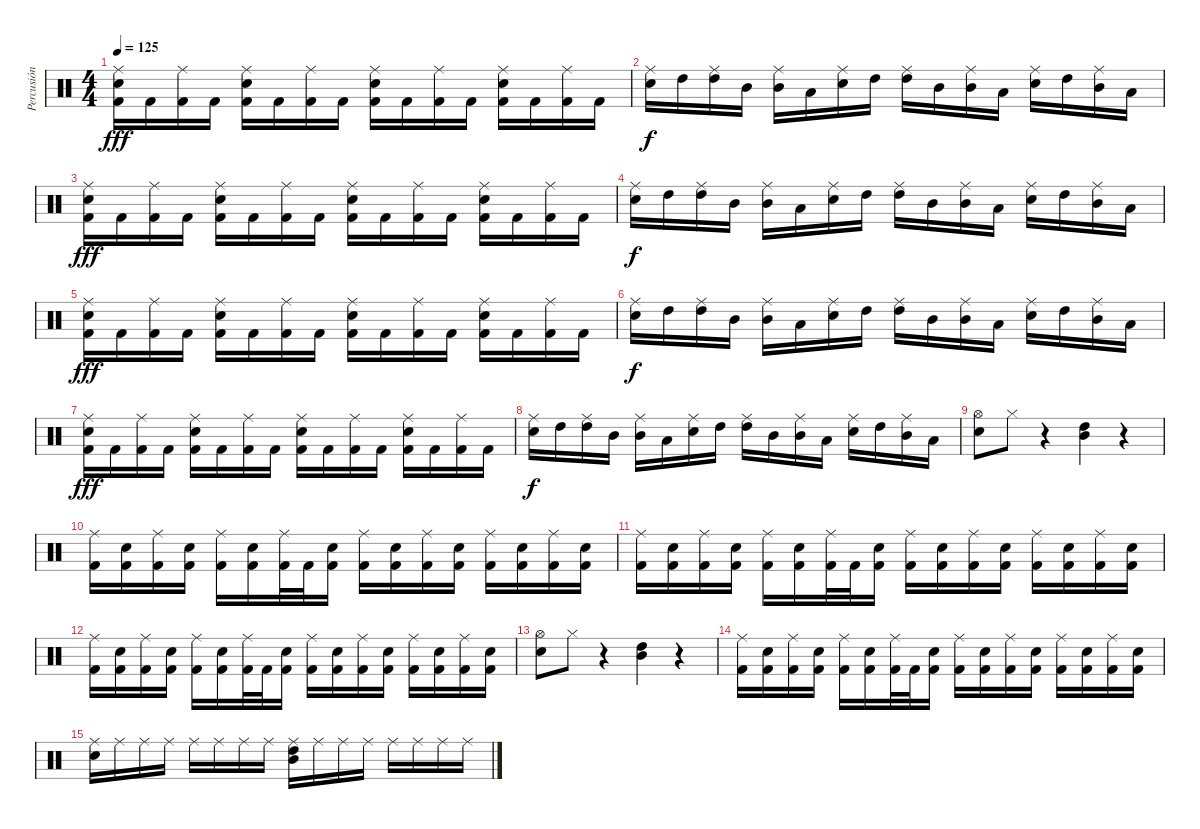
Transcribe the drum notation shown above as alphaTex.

\track ("Percusión" "Percusión") {instrument percussion}
\staff {score}
\articulation defaults
\ts (4 4)
\tempo 125
\clef neutral
\ks c
("Ride (middle)" "Electric Snare (hit)" "Kick (hit) 2").16{dy fff} "Kick (hit) 2".16 ("Ride (middle)" "Kick (hit) 2").16 "Kick (hit) 2".16 ("Ride (middle)" "Electric Snare (hit)" "Kick (hit) 2").16 "Kick (hit) 2".16 ("Ride (middle)" "Kick (hit) 2").16 "Kick (hit) 2".16 ("Ride (middle)" "Electric Snare (hit)" "Kick (hit) 2").16 "Kick (hit) 2".16 ("Ride (middle)" "Kick (hit) 2").16 "Kick (hit) 2".16 ("Ride (middle)" "Electric Snare (hit)" "Kick (hit) 2").16 "Kick (hit) 2".16 ("Ride (middle)" "Kick (hit) 2").16 "Kick (hit) 2".16 |
("Ride (middle)" "Electric Snare (hit)").16{dy f} "High Tom (hit)".16 ("Ride (middle)" "High Tom (hit)").16 "Mid Tom (hit)".16 ("Ride (middle)" "Mid Tom (hit)").16 "Low Tom (hit)".16 ("Ride (middle)" "Electric Snare (hit)").16 "High Tom (hit)".16 ("Ride (middle)" "High Tom (hit)").16 "Mid Tom (hit)".16 ("Ride (middle)" "Mid Tom (hit)").16 "Low Tom (hit)".16 ("Ride (middle)" "Electric Snare (hit)").16 "High Tom (hit)".16 ("Ride (middle)" "Mid Tom (hit)").16 "Low Tom (hit)".16 |
("Ride (middle)" "Electric Snare (hit)" "Kick (hit) 2").16{dy fff} "Kick (hit) 2".16 ("Ride (middle)" "Kick (hit) 2").16 "Kick (hit) 2".16 ("Ride (middle)" "Electric Snare (hit)" "Kick (hit) 2").16 "Kick (hit) 2".16 ("Ride (middle)" "Kick (hit) 2").16 "Kick (hit) 2".16 ("Ride (middle)" "Electric Snare (hit)" "Kick (hit) 2").16 "Kick (hit) 2".16 ("Ride (middle)" "Kick (hit) 2").16 "Kick (hit) 2".16 ("Ride (middle)" "Electric Snare (hit)" "Kick (hit) 2").16 "Kick (hit) 2".16 ("Ride (middle)" "Kick (hit) 2").16 "Kick (hit) 2".16 |
("Ride (middle)" "Electric Snare (hit)").16{dy f} "High Tom (hit)".16 ("Ride (middle)" "High Tom (hit)").16 "Mid Tom (hit)".16 ("Ride (middle)" "Mid Tom (hit)").16 "Low Tom (hit)".16 ("Ride (middle)" "Electric Snare (hit)").16 "High Tom (hit)".16 ("Ride (middle)" "High Tom (hit)").16 "Mid Tom (hit)".16 ("Ride (middle)" "Mid Tom (hit)").16 "Low Tom (hit)".16 ("Ride (middle)" "Electric Snare (hit)").16 "High Tom (hit)".16 ("Ride (middle)" "Mid Tom (hit)").16 "Low Tom (hit)".16 |
("Ride (middle)" "Electric Snare (hit)" "Kick (hit) 2").16{dy fff} "Kick (hit) 2".16 ("Ride (middle)" "Kick (hit) 2").16 "Kick (hit) 2".16 ("Ride (middle)" "Electric Snare (hit)" "Kick (hit) 2").16 "Kick (hit) 2".16 ("Ride (middle)" "Kick (hit) 2").16 "Kick (hit) 2".16 ("Ride (middle)" "Electric Snare (hit)" "Kick (hit) 2").16 "Kick (hit) 2".16 ("Ride (middle)" "Kick (hit) 2").16 "Kick (hit) 2".16 ("Ride (middle)" "Electric Snare (hit)" "Kick (hit) 2").16 "Kick (hit) 2".16 ("Ride (middle)" "Kick (hit) 2").16 "Kick (hit) 2".16 |
("Ride (middle)" "Electric Snare (hit)").16{dy f} "High Tom (hit)".16 ("Ride (middle)" "High Tom (hit)").16 "Mid Tom (hit)".16 ("Ride (middle)" "Mid Tom (hit)").16 "Low Tom (hit)".16 ("Ride (middle)" "Electric Snare (hit)").16 "High Tom (hit)".16 ("Ride (middle)" "High Tom (hit)").16 "Mid Tom (hit)".16 ("Ride (middle)" "Mid Tom (hit)").16 "Low Tom (hit)".16 ("Ride (middle)" "Electric Snare (hit)").16 "High Tom (hit)".16 ("Ride (middle)" "Mid Tom (hit)").16 "Low Tom (hit)".16 |
("Ride (middle)" "Electric Snare (hit)" "Kick (hit) 2").16{dy fff} "Kick (hit) 2".16 ("Ride (middle)" "Kick (hit) 2").16 "Kick (hit) 2".16 ("Ride (middle)" "Electric Snare (hit)" "Kick (hit) 2").16 "Kick (hit) 2".16 ("Ride (middle)" "Kick (hit) 2").16 "Kick (hit) 2".16 ("Ride (middle)" "Electric Snare (hit)" "Kick (hit) 2").16 "Kick (hit) 2".16 ("Ride (middle)" "Kick (hit) 2").16 "Kick (hit) 2".16 ("Ride (middle)" "Electric Snare (hit)" "Kick (hit) 2").16 "Kick (hit) 2".16 ("Ride (middle)" "Kick (hit) 2").16 "Kick (hit) 2".16 |
("Ride (middle)" "Electric Snare (hit)").16{dy f} "High Tom (hit)".16 ("Ride (middle)" "High Tom (hit)").16 "Mid Tom (hit)".16 ("Ride (middle)" "Mid Tom (hit)").16 "Low Tom (hit)".16 ("Ride (middle)" "Electric Snare (hit)").16 "High Tom (hit)".16 ("Ride (middle)" "High Tom (hit)").16 "Mid Tom (hit)".16 ("Ride (middle)" "Mid Tom (hit)").16 "Low Tom (hit)".16 ("Ride (middle)" "Electric Snare (hit)").16 "High Tom (hit)".16 ("Ride (middle)" "Mid Tom (hit)").16 "Low Tom (hit)".16 |
("Hi-Hat (open)" "Electric Snare (hit)").8 "Hi-Hat (closed)".8 r.4 ("Mid Tom (hit)" "High Tom (hit)").4 r.4 |
("Ride (middle)" "Kick (hit) 2").16 ("Electric Snare (hit)" "Kick (hit) 2").16 ("Ride (middle)" "Kick (hit) 2").16 ("Electric Snare (hit)" "Kick (hit) 2").16 ("Ride (middle)" "Kick (hit) 2").16 ("Electric Snare (hit)" "Kick (hit) 2").16 ("Ride (middle)" "Kick (hit) 2").32 "Kick (hit) 2".32 ("Electric Snare (hit)" "Kick (hit) 2").16 ("Ride (middle)" "Kick (hit) 2").16 ("Electric Snare (hit)" "Kick (hit) 2").16 ("Ride (middle)" "Kick (hit) 2").16 ("Electric Snare (hit)" "Kick (hit) 2").16 ("Ride (middle)" "Kick (hit) 2").16 ("Electric Snare (hit)" "Kick (hit) 2").16 ("Ride (middle)" "Kick (hit) 2").16 ("Electric Snare (hit)" "Kick (hit) 2").16 |
("Ride (middle)" "Kick (hit) 2").16 ("Electric Snare (hit)" "Kick (hit) 2").16 ("Ride (middle)" "Kick (hit) 2").16 ("Electric Snare (hit)" "Kick (hit) 2").16 ("Ride (middle)" "Kick (hit) 2").16 ("Electric Snare (hit)" "Kick (hit) 2").16 ("Ride (middle)" "Kick (hit) 2").32 "Kick (hit) 2".32 ("Electric Snare (hit)" "Kick (hit) 2").16 ("Ride (middle)" "Kick (hit) 2").16 ("Electric Snare (hit)" "Kick (hit) 2").16 ("Ride (middle)" "Kick (hit) 2").16 ("Electric Snare (hit)" "Kick (hit) 2").16 ("Ride (middle)" "Kick (hit) 2").16 ("Electric Snare (hit)" "Kick (hit) 2").16 ("Ride (middle)" "Kick (hit) 2").16 ("Electric Snare (hit)" "Kick (hit) 2").16 |
("Ride (middle)" "Kick (hit) 2").16 ("Electric Snare (hit)" "Kick (hit) 2").16 ("Ride (middle)" "Kick (hit) 2").16 ("Electric Snare (hit)" "Kick (hit) 2").16 ("Ride (middle)" "Kick (hit) 2").16 ("Electric Snare (hit)" "Kick (hit) 2").16 ("Ride (middle)" "Kick (hit) 2").32 "Kick (hit) 2".32 ("Electric Snare (hit)" "Kick (hit) 2").16 ("Ride (middle)" "Kick (hit) 2").16 ("Electric Snare (hit)" "Kick (hit) 2").16 ("Ride (middle)" "Kick (hit) 2").16 ("Electric Snare (hit)" "Kick (hit) 2").16 ("Ride (middle)" "Kick (hit) 2").16 ("Electric Snare (hit)" "Kick (hit) 2").16 ("Ride (middle)" "Kick (hit) 2").16 ("Electric Snare (hit)" "Kick (hit) 2").16 |
("Hi-Hat (open)" "Electric Snare (hit)").8 "Hi-Hat (closed)".8 r.4 ("Mid Tom (hit)" "High Tom (hit)").4 r.4 |
("Ride (middle)" "Kick (hit) 2").16 ("Electric Snare (hit)" "Kick (hit) 2").16 ("Ride (middle)" "Kick (hit) 2").16 ("Electric Snare (hit)" "Kick (hit) 2").16 ("Ride (middle)" "Kick (hit) 2").16 ("Electric Snare (hit)" "Kick (hit) 2").16 ("Ride (middle)" "Kick (hit) 2").32 "Kick (hit) 2".32 ("Electric Snare (hit)" "Kick (hit) 2").16 ("Ride (middle)" "Kick (hit) 2").16 ("Electric Snare (hit)" "Kick (hit) 2").16 ("Ride (middle)" "Kick (hit) 2").16 ("Electric Snare (hit)" "Kick (hit) 2").16 ("Ride (middle)" "Kick (hit) 2").16 ("Electric Snare (hit)" "Kick (hit) 2").16 ("Ride (middle)" "Kick (hit) 2").16 ("Electric Snare (hit)" "Kick (hit) 2").16 |
("Ride (middle)" "Electric Snare (hit)").16 "Ride (middle)".16 "Ride (middle)".16 "Ride (middle)".16 "Ride (middle)".16 "Ride (middle)".16 "Ride (middle)".16 "Ride (middle)".16 ("Ride (middle)" "Mid Tom (hit)" "High Tom (hit)").16 "Ride (middle)".16 "Ride (middle)".16 "Ride (middle)".16 "Ride (middle)".16 "Ride (middle)".16 "Ride (middle)".16 "Ride (middle)".16
